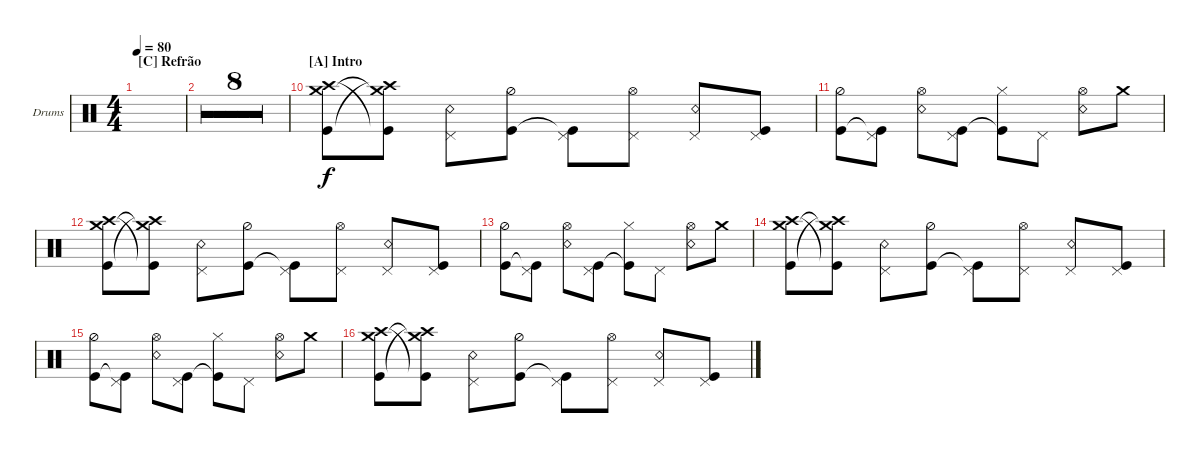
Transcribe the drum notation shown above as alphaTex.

\defaultSystemsLayout 4
\bracketExtendMode groupsimilarinstruments
\firstSystemTrackNameOrientation horizontal
\otherSystemsTrackNameOrientation horizontal
\track ("Drum" "Drums") {multiBarRest instrument percussion}
\staff {score}
\articulation defaults
\ts (4 4)
\section ("C" "Refrão")
\tempo 80
\clef neutral
\ks c
|
|
|
|
|
|
|
|
|
\section ("A" "Intro")
("Crash high (hit)" "Kick (hit)" "Crash medium (hit)").8 ("Kick (hit)"{t} "Crash high (hit)"{t} "Crash medium (hit)"{t}).8 ("Snare (rim shot)" "Pedal Hi-Hat (hit)").8 ("Kick (hit)" "Hi-Hat (half)").8 ("Kick (hit)"{t} "Pedal Hi-Hat (hit)").8 ("Pedal Hi-Hat (hit)" "Hi-Hat (open)").8 ("Snare (rim shot)" "Pedal Hi-Hat (hit)").8 ("Kick (hit)" "Pedal Hi-Hat (hit)").8 |
("Kick (hit)" "Hi-Hat (half)").8 ("Kick (hit)"{t} "Pedal Hi-Hat (hit)").8 ("Snare (rim shot)" "Hi-Hat (open)").8 ("Kick (hit)" "Pedal Hi-Hat (hit)").8 ("Kick (hit)"{t} "Hi-Hat (closed)").8 "Pedal Hi-Hat (hit)".8 ("Snare (rim shot)" "Hi-Hat (open)").8 "Crash medium (hit)".8 |
("Crash high (hit)" "Kick (hit)" "Crash medium (hit)").8 ("Kick (hit)"{t} "Crash high (hit)"{t} "Crash medium (hit)"{t}).8 ("Snare (rim shot)" "Pedal Hi-Hat (hit)").8 ("Kick (hit)" "Hi-Hat (half)").8 ("Kick (hit)"{t} "Pedal Hi-Hat (hit)").8 ("Pedal Hi-Hat (hit)" "Hi-Hat (open)").8 ("Snare (rim shot)" "Pedal Hi-Hat (hit)").8 ("Kick (hit)" "Pedal Hi-Hat (hit)").8 |
("Kick (hit)" "Hi-Hat (half)").8 ("Kick (hit)"{t} "Pedal Hi-Hat (hit)").8 ("Snare (rim shot)" "Hi-Hat (open)").8 ("Kick (hit)" "Pedal Hi-Hat (hit)").8 ("Kick (hit)"{t} "Hi-Hat (closed)").8 "Pedal Hi-Hat (hit)".8 ("Snare (rim shot)" "Hi-Hat (open)").8 "Crash medium (hit)".8 |
("Crash high (hit)" "Kick (hit)" "Crash medium (hit)").8 ("Kick (hit)"{t} "Crash high (hit)"{t} "Crash medium (hit)"{t}).8 ("Snare (rim shot)" "Pedal Hi-Hat (hit)").8 ("Kick (hit)" "Hi-Hat (half)").8 ("Kick (hit)"{t} "Pedal Hi-Hat (hit)").8 ("Pedal Hi-Hat (hit)" "Hi-Hat (open)").8 ("Snare (rim shot)" "Pedal Hi-Hat (hit)").8 ("Kick (hit)" "Pedal Hi-Hat (hit)").8 |
("Kick (hit)" "Hi-Hat (half)").8 ("Kick (hit)"{t} "Pedal Hi-Hat (hit)").8 ("Snare (rim shot)" "Hi-Hat (open)").8 ("Kick (hit)" "Pedal Hi-Hat (hit)").8 ("Kick (hit)"{t} "Hi-Hat (closed)").8 "Pedal Hi-Hat (hit)".8 ("Snare (rim shot)" "Hi-Hat (open)").8 "Crash medium (hit)".8 |
("Crash high (hit)" "Kick (hit)" "Crash medium (hit)").8 ("Kick (hit)"{t} "Crash high (hit)"{t} "Crash medium (hit)"{t}).8 ("Snare (rim shot)" "Pedal Hi-Hat (hit)").8 ("Kick (hit)" "Hi-Hat (half)").8 ("Kick (hit)"{t} "Pedal Hi-Hat (hit)").8 ("Pedal Hi-Hat (hit)" "Hi-Hat (open)").8 ("Snare (rim shot)" "Pedal Hi-Hat (hit)").8 ("Kick (hit)" "Pedal Hi-Hat (hit)").8
